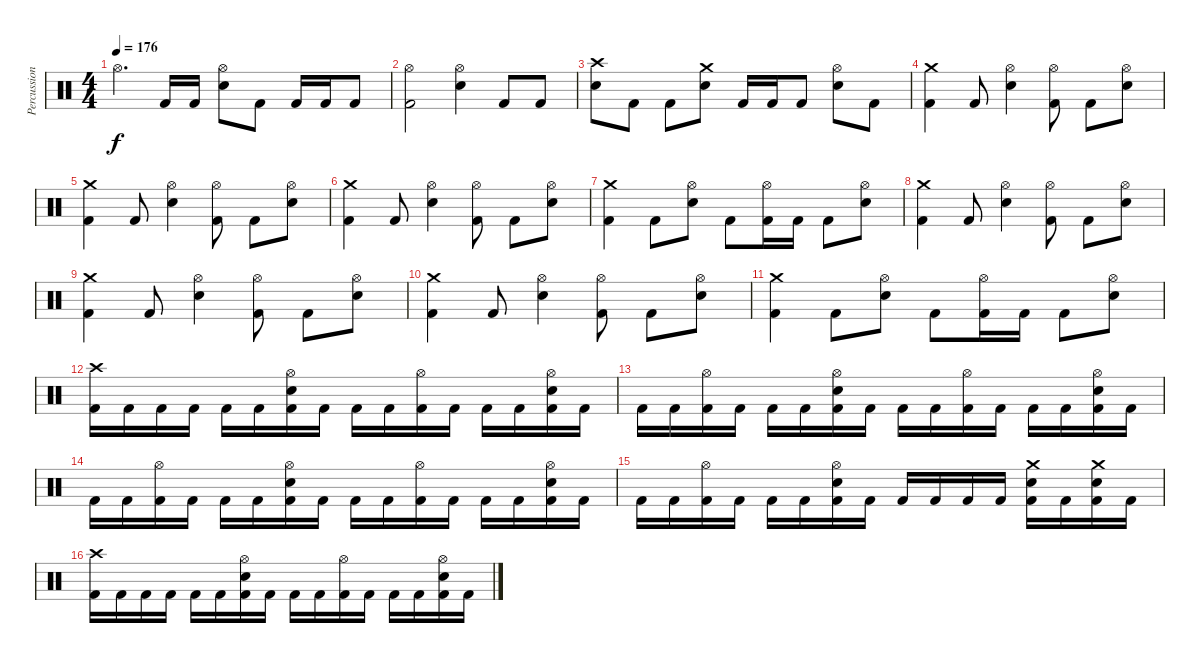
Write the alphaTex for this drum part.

\track ("Percussion" "Percussion") {instrument percussion}
\staff {score}
\articulation defaults
\ts (4 4)
\tempo 176
\clef neutral
\ks c "Hi-Hat (open)".4{d dy f} "Kick (hit) 2".16 "Kick (hit) 2".16
("Hi-Hat (open)" "Snare (hit) 2").8 "Kick (hit) 2".8 "Kick (hit) 2".16 "Kick (hit) 2".16 "Kick (hit) 2".8 |
("Hi-Hat (open)" "Kick (hit) 2").2 ("Hi-Hat (open)" "Snare (hit) 2").4 "Kick (hit) 2".8 "Kick (hit) 2".8 |
("Crash high (hit)" "Snare (hit) 2").8 "Kick (hit) 2".8 "Kick (hit) 2".8 ("Crash medium (hit)" "Snare (hit) 2").8 "Kick (hit) 2".16 "Kick (hit) 2".16 "Kick (hit) 2".8 ("Hi-Hat (open)" "Snare (hit) 2").8 "Kick (hit) 2".8 |
("Crash medium (hit)" "Kick (hit) 2").4 "Kick (hit) 2".8 ("Hi-Hat (open)" "Snare (hit) 2").4 ("Hi-Hat (open)" "Kick (hit) 2").8 "Kick (hit) 2".8 ("Hi-Hat (open)" "Snare (hit) 2").8 |
("Crash medium (hit)" "Kick (hit) 2").4 "Kick (hit) 2".8 ("Hi-Hat (open)" "Snare (hit) 2").4 ("Hi-Hat (open)" "Kick (hit) 2").8 "Kick (hit) 2".8 ("Hi-Hat (open)" "Snare (hit) 2").8 |
("Crash medium (hit)" "Kick (hit) 2").4 "Kick (hit) 2".8 ("Hi-Hat (open)" "Snare (hit) 2").4 ("Hi-Hat (open)" "Kick (hit) 2").8 "Kick (hit) 2".8 ("Hi-Hat (open)" "Snare (hit) 2").8 |
("Crash medium (hit)" "Kick (hit) 2").4 "Kick (hit) 2".8 ("Hi-Hat (open)" "Snare (hit) 2").8 "Kick (hit) 2".8 ("Hi-Hat (open)" "Kick (hit) 2").16 "Kick (hit) 2".16 "Kick (hit) 2".8 ("Hi-Hat (open)" "Snare (hit) 2").8 |
("Crash medium (hit)" "Kick (hit) 2").4 "Kick (hit) 2".8 ("Hi-Hat (open)" "Snare (hit) 2").4 ("Hi-Hat (open)" "Kick (hit) 2").8 "Kick (hit) 2".8 ("Hi-Hat (open)" "Snare (hit) 2").8 |
("Crash medium (hit)" "Kick (hit) 2").4 "Kick (hit) 2".8 ("Hi-Hat (open)" "Snare (hit) 2").4 ("Hi-Hat (open)" "Kick (hit) 2").8 "Kick (hit) 2".8 ("Hi-Hat (open)" "Snare (hit) 2").8 |
("Crash medium (hit)" "Kick (hit) 2").4 "Kick (hit) 2".8 ("Hi-Hat (open)" "Snare (hit) 2").4 ("Hi-Hat (open)" "Kick (hit) 2").8 "Kick (hit) 2".8 ("Hi-Hat (open)" "Snare (hit) 2").8 |
("Crash medium (hit)" "Kick (hit) 2").4 "Kick (hit) 2".8 ("Hi-Hat (open)" "Snare (hit) 2").8 "Kick (hit) 2".8 ("Hi-Hat (open)" "Kick (hit) 2").16 "Kick (hit) 2".16 "Kick (hit) 2".8 ("Hi-Hat (open)" "Snare (hit) 2").8 |
("Crash high (hit)" "Kick (hit) 2").16 "Kick (hit) 2".16 "Kick (hit) 2".16 "Kick (hit) 2".16 "Kick (hit) 2".16 "Kick (hit) 2".16 ("Hi-Hat (open)" "Snare (hit) 2" "Kick (hit) 2").16 "Kick (hit) 2".16 "Kick (hit) 2".16 "Kick (hit) 2".16 ("Hi-Hat (open)" "Kick (hit) 2").16 "Kick (hit) 2".16 "Kick (hit) 2".16 "Kick (hit) 2".16 ("Hi-Hat (open)" "Snare (hit) 2" "Kick (hit) 2").16 "Kick (hit) 2".16 |
"Kick (hit) 2".16 "Kick (hit) 2".16 ("Hi-Hat (open)" "Kick (hit) 2").16 "Kick (hit) 2".16 "Kick (hit) 2".16 "Kick (hit) 2".16 ("Hi-Hat (open)" "Snare (hit) 2" "Kick (hit) 2").16 "Kick (hit) 2".16 "Kick (hit) 2".16 "Kick (hit) 2".16 ("Hi-Hat (open)" "Kick (hit) 2").16 "Kick (hit) 2".16 "Kick (hit) 2".16 "Kick (hit) 2".16 ("Hi-Hat (open)" "Snare (hit) 2" "Kick (hit) 2").16 "Kick (hit) 2".16 |
"Kick (hit) 2".16 "Kick (hit) 2".16 ("Hi-Hat (open)" "Kick (hit) 2").16 "Kick (hit) 2".16 "Kick (hit) 2".16 "Kick (hit) 2".16 ("Hi-Hat (open)" "Snare (hit) 2" "Kick (hit) 2").16 "Kick (hit) 2".16 "Kick (hit) 2".16 "Kick (hit) 2".16 ("Hi-Hat (open)" "Kick (hit) 2").16 "Kick (hit) 2".16 "Kick (hit) 2".16 "Kick (hit) 2".16 ("Hi-Hat (open)" "Snare (hit) 2" "Kick (hit) 2").16 "Kick (hit) 2".16 |
"Kick (hit) 2".16 "Kick (hit) 2".16 ("Hi-Hat (open)" "Kick (hit) 2").16 "Kick (hit) 2".16 "Kick (hit) 2".16 "Kick (hit) 2".16 ("Hi-Hat (open)" "Snare (hit) 2" "Kick (hit) 2").16 "Kick (hit) 2".16 "Kick (hit) 2".16 "Kick (hit) 2".16 "Kick (hit) 2".16 "Kick (hit) 2".16 ("Crash medium (hit)" "Snare (hit) 2" "Kick (hit) 2").16 "Kick (hit) 2".16 ("Crash medium (hit)" "Snare (hit) 2" "Kick (hit) 2").16 "Kick (hit) 2".16 |
("Crash high (hit)" "Kick (hit) 2").16 "Kick (hit) 2".16 "Kick (hit) 2".16 "Kick (hit) 2".16 "Kick (hit) 2".16 "Kick (hit) 2".16 ("Hi-Hat (open)" "Snare (hit) 2" "Kick (hit) 2").16 "Kick (hit) 2".16 "Kick (hit) 2".16 "Kick (hit) 2".16 ("Hi-Hat (open)" "Kick (hit) 2").16 "Kick (hit) 2".16 "Kick (hit) 2".16 "Kick (hit) 2".16 ("Hi-Hat (open)" "Snare (hit) 2" "Kick (hit) 2").16 "Kick (hit) 2".16
